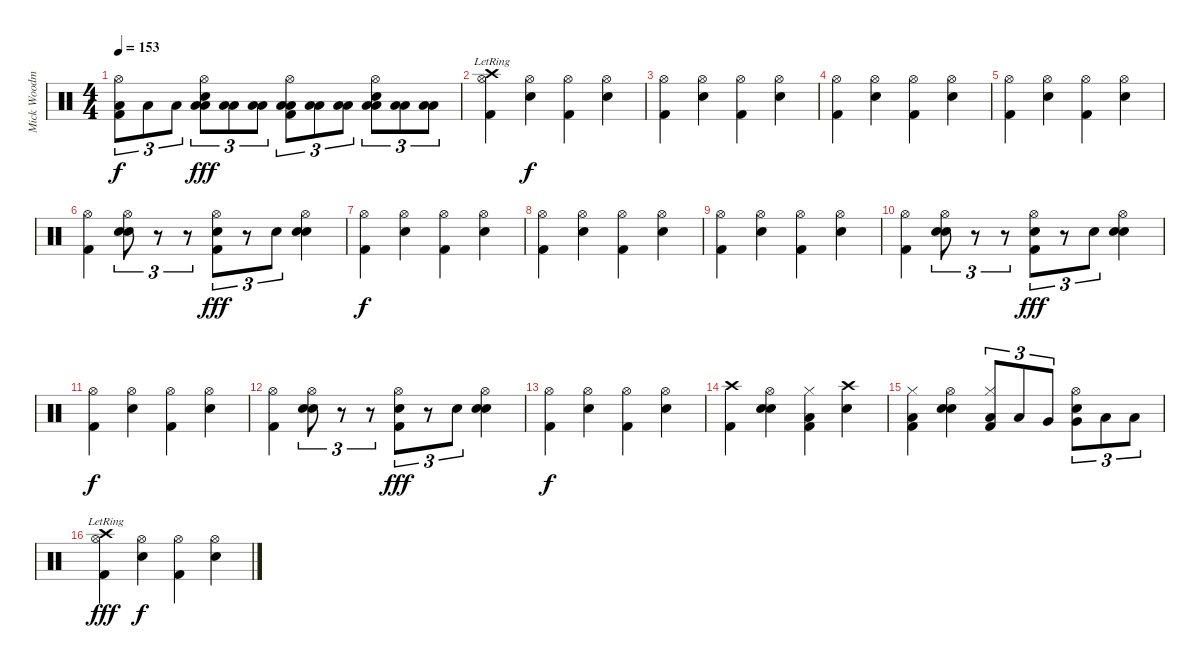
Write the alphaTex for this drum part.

\track ("Mick Woodmansey - Drums" "Mick Woodm") {instrument percussion}
\staff {score}
\articulation defaults
\ts (4 4)
\tempo 153
\clef neutral
\ks c
("Hi-Hat (open)" "Low Floor Tom (hit)" "Kick (hit) 2").8{tu (3 2) dy f} "Low Floor Tom (hit)".8{tu (3 2)} "Low Floor Tom (hit)".8{tu (3 2)} ("Hi-Hat (open)" "Electric Snare (hit)" "Low Floor Tom (hit)" "Low Floor Tom (hit)").8{tu (3 2) dy fff} ("Low Floor Tom (hit)" "Low Floor Tom (hit)").8{tu (3 2)} ("Low Floor Tom (hit)" "Low Floor Tom (hit)").8{tu (3 2)} ("Hi-Hat (open)" "Low Floor Tom (hit)" "Low Floor Tom (hit)" "Kick (hit) 2").8{tu (3 2)} ("Low Floor Tom (hit)" "Low Floor Tom (hit)").8{tu (3 2)} ("Low Floor Tom (hit)" "Low Floor Tom (hit)").8{tu (3 2)} ("Hi-Hat (open)" "Electric Snare (hit)" "Low Floor Tom (hit)" "Low Floor Tom (hit)").8{tu (3 2)} ("Low Floor Tom (hit)" "Low Floor Tom (hit)").8{tu (3 2)} ("Low Floor Tom (hit)" "Low Floor Tom (hit)").8{tu (3 2)} |
("Hi-Hat (open)" "Crash high (hit)"{lr} "Kick (hit) 2").4 ("Hi-Hat (open)" "Electric Snare (hit)").4{dy f} ("Hi-Hat (open)" "Kick (hit) 2").4 ("Hi-Hat (open)" "Electric Snare (hit)").4 |
("Hi-Hat (open)" "Kick (hit) 2").4 ("Hi-Hat (open)" "Electric Snare (hit)").4 ("Hi-Hat (open)" "Kick (hit) 2").4 ("Hi-Hat (open)" "Electric Snare (hit)").4 |
("Hi-Hat (open)" "Kick (hit) 2").4 ("Hi-Hat (open)" "Electric Snare (hit)").4 ("Hi-Hat (open)" "Kick (hit) 2").4 ("Hi-Hat (open)" "Electric Snare (hit)").4 |
("Hi-Hat (open)" "Kick (hit) 2").4 ("Hi-Hat (open)" "Electric Snare (hit)").4 ("Hi-Hat (open)" "Kick (hit) 2").4 ("Hi-Hat (open)" "Electric Snare (hit)").4 |
("Hi-Hat (open)" "Kick (hit) 2").4 ("Hi-Hat (open)" "Hand Clap (hit)" "Electric Snare (hit)").8{tu (3 2)} r.8{tu (3 2)} r.8{tu (3 2)} ("Hi-Hat (open)" "Hand Clap (hit)" "Kick (hit) 2").8{tu (3 2) dy fff} r.8{tu (3 2)} "Hand Clap (hit)".8{tu (3 2)} ("Hi-Hat (open)" "Hand Clap (hit)" "Electric Snare (hit)").4 |
("Hi-Hat (open)" "Kick (hit) 2").4{dy f} ("Hi-Hat (open)" "Electric Snare (hit)").4 ("Hi-Hat (open)" "Kick (hit) 2").4 ("Hi-Hat (open)" "Electric Snare (hit)").4 |
("Hi-Hat (open)" "Kick (hit) 2").4 ("Hi-Hat (open)" "Electric Snare (hit)").4 ("Hi-Hat (open)" "Kick (hit) 2").4 ("Hi-Hat (open)" "Electric Snare (hit)").4 |
("Hi-Hat (open)" "Kick (hit) 2").4 ("Hi-Hat (open)" "Electric Snare (hit)").4 ("Hi-Hat (open)" "Kick (hit) 2").4 ("Hi-Hat (open)" "Electric Snare (hit)").4 |
("Hi-Hat (open)" "Kick (hit) 2").4 ("Hi-Hat (open)" "Hand Clap (hit)" "Electric Snare (hit)").8{tu (3 2)} r.8{tu (3 2)} r.8{tu (3 2)} ("Hi-Hat (open)" "Hand Clap (hit)" "Kick (hit) 2").8{tu (3 2) dy fff} r.8{tu (3 2)} "Hand Clap (hit)".8{tu (3 2)} ("Hi-Hat (open)" "Hand Clap (hit)" "Electric Snare (hit)").4 |
("Hi-Hat (open)" "Kick (hit) 2").4{dy f} ("Hi-Hat (open)" "Electric Snare (hit)").4 ("Hi-Hat (open)" "Kick (hit) 2").4 ("Hi-Hat (open)" "Electric Snare (hit)").4 |
("Hi-Hat (open)" "Kick (hit) 2").4 ("Hi-Hat (open)" "Hand Clap (hit)" "Electric Snare (hit)").8{tu (3 2)} r.8{tu (3 2)} r.8{tu (3 2)} ("Hi-Hat (open)" "Hand Clap (hit)" "Kick (hit) 2").8{tu (3 2) dy fff} r.8{tu (3 2)} "Hand Clap (hit)".8{tu (3 2)} ("Hi-Hat (open)" "Hand Clap (hit)" "Electric Snare (hit)").4 |
("Hi-Hat (open)" "Kick (hit) 2").4{dy f} ("Hi-Hat (open)" "Electric Snare (hit)").4 ("Hi-Hat (open)" "Kick (hit) 2").4 ("Hi-Hat (open)" "Electric Snare (hit)").4 |
("Crash high (hit)" "Kick (hit) 2").4 ("Hi-Hat (open)" "Electric Snare (hit)" "Electric Snare (hit)").4 ("Hi-Hat (closed)" "Low Floor Tom (hit)" "Kick (hit) 2").4 ("Crash high (hit)" "Electric Snare (hit)").4 |
("Hi-Hat (closed)" "Low Floor Tom (hit)" "Kick (hit) 2").4 ("Hi-Hat (open)" "Electric Snare (hit)" "Electric Snare (hit)").4 ("Hi-Hat (closed)" "Low Tom (hit)" "Kick (hit) 2").8{tu (3 2)} "Low Tom (hit)".8{tu (3 2)} "Very Low Tom (hit)".8{tu (3 2)} ("Hi-Hat (open)" "Electric Snare (hit)" "Very Low Tom (hit)").8{tu (3 2)} "Low Floor Tom (hit)".8{tu (3 2)} "Low Floor Tom (hit)".8{tu (3 2)} |
("Hi-Hat (open)" "Crash high (hit)"{lr} "Kick (hit) 2").4{dy fff} ("Hi-Hat (open)" "Electric Snare (hit)").4{dy f} ("Hi-Hat (open)" "Kick (hit) 2").4 ("Hi-Hat (open)" "Electric Snare (hit)").4
